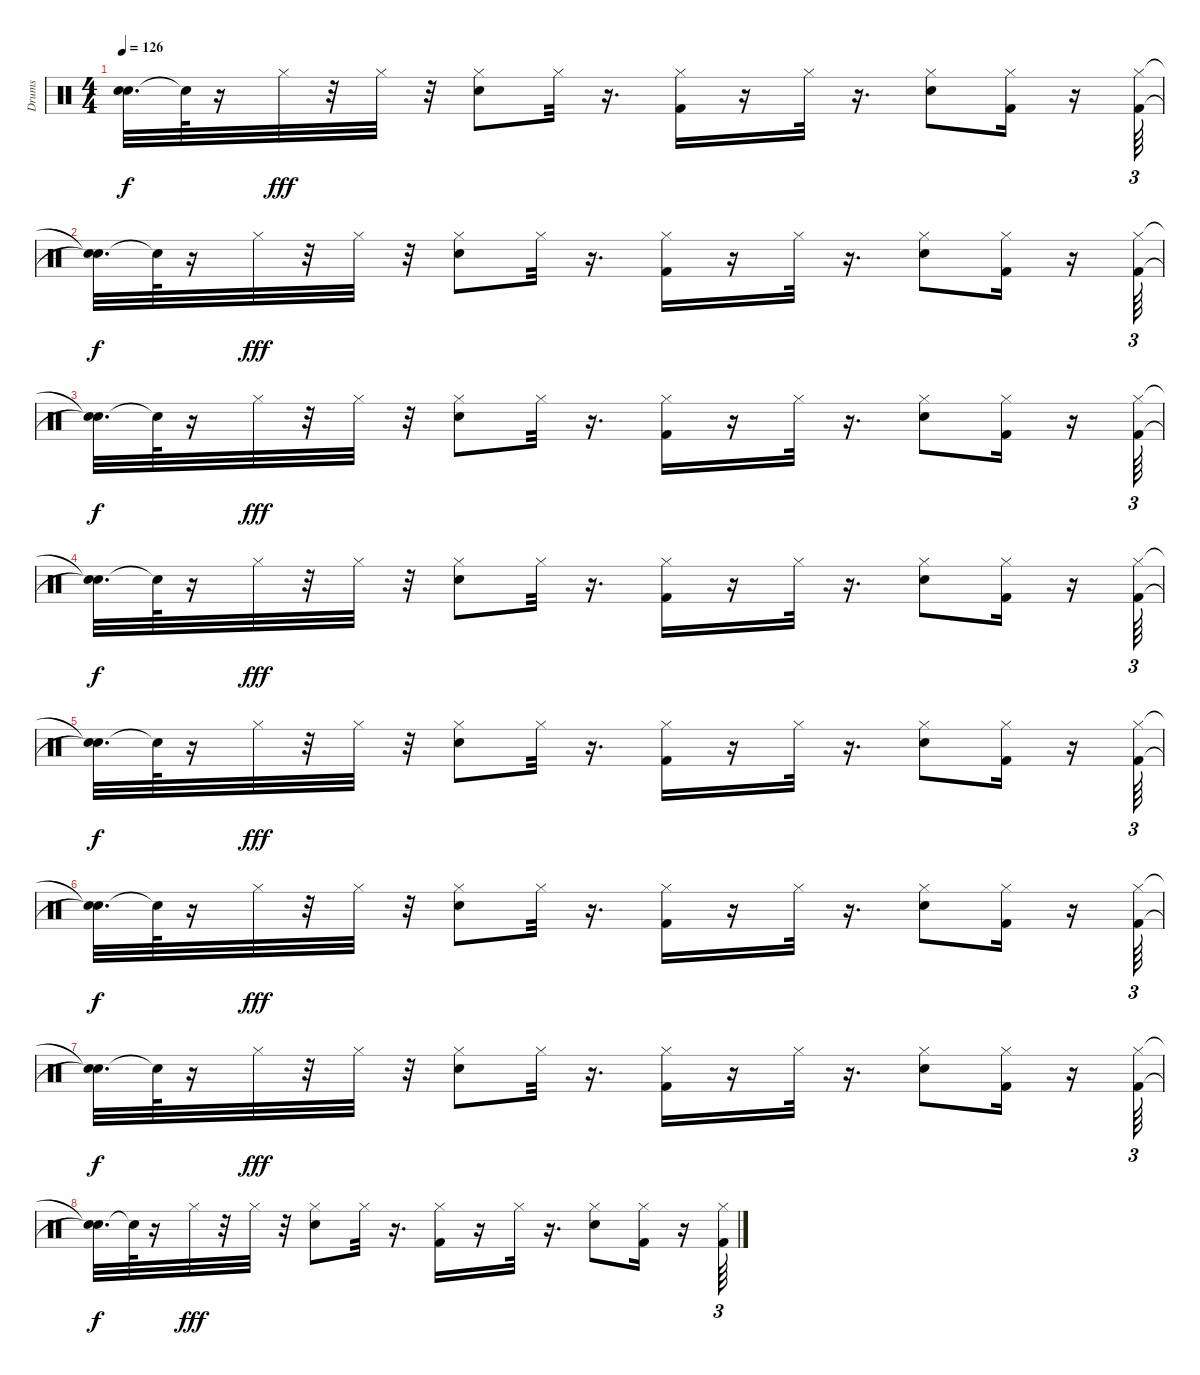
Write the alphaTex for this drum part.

\track ("Drums" "Drums") {instrument percussion}
\staff {score}
\articulation defaults
\ts (4 4)
\tempo 126
\clef neutral
\ks c
("Snare (hit)"{t} "Snare (hit)"{t}).32{d dy f} "Snare (hit)"{t}.64 r.16 "Hi-Hat (closed)".32{dy fff} r.32 "Hi-Hat (closed)".32 r.32 ("Snare (hit) 2" "Hi-Hat (closed)").8 "Hi-Hat (closed)".32 r.16{d} ("Hi-Hat (closed)" "Kick (hit) 2").16 r.16 "Hi-Hat (closed)".32 r.16{d} ("Snare (hit) 2" "Hi-Hat (closed)").8 ("Hi-Hat (closed)" "Kick (hit) 2").16 r.16 ("Hi-Hat (closed)" "Kick (hit) 2").64{tu (3 2)} |
("Snare (hit)"{t} "Snare (hit)"{t}).32{d dy f} "Snare (hit)"{t}.64 r.16 "Hi-Hat (closed)".32{dy fff} r.32 "Hi-Hat (closed)".32 r.32 ("Snare (hit) 2" "Hi-Hat (closed)").8 "Hi-Hat (closed)".32 r.16{d} ("Kick (hit) 2" "Hi-Hat (closed)").16 r.16 "Hi-Hat (closed)".32 r.16{d} ("Snare (hit) 2" "Hi-Hat (closed)").8 ("Hi-Hat (closed)" "Kick (hit) 2").16 r.16 ("Hi-Hat (closed)" "Kick (hit) 2").64{tu (3 2)} |
("Snare (hit)"{t} "Snare (hit)"{t}).32{d dy f} "Snare (hit)"{t}.64 r.16 "Hi-Hat (closed)".32{dy fff} r.32 "Hi-Hat (closed)".32 r.32 ("Snare (hit) 2" "Hi-Hat (closed)").8 "Hi-Hat (closed)".32 r.16{d} ("Hi-Hat (closed)" "Kick (hit) 2").16 r.16 "Hi-Hat (closed)".32 r.16{d} ("Snare (hit) 2" "Hi-Hat (closed)").8 ("Hi-Hat (closed)" "Kick (hit) 2").16 r.16 ("Kick (hit) 2" "Hi-Hat (closed)").64{tu (3 2)} |
("Snare (hit)"{t} "Snare (hit)"{t}).32{d dy f} "Snare (hit)"{t}.64 r.16 "Hi-Hat (closed)".32{dy fff} r.32 "Hi-Hat (closed)".32 r.32 ("Hi-Hat (closed)" "Snare (hit) 2").8 "Hi-Hat (closed)".32 r.16{d} ("Hi-Hat (closed)" "Kick (hit) 2").16 r.16 "Hi-Hat (closed)".32 r.16{d} ("Snare (hit) 2" "Hi-Hat (closed)").8 ("Hi-Hat (closed)" "Kick (hit) 2").16 r.16 ("Kick (hit) 2" "Hi-Hat (closed)").64{tu (3 2)} |
("Snare (hit)"{t} "Snare (hit)"{t}).32{d dy f} "Snare (hit)"{t}.64 r.16 "Hi-Hat (closed)".32{dy fff} r.32 "Hi-Hat (closed)".32 r.32 ("Hi-Hat (closed)" "Snare (hit) 2").8 "Hi-Hat (closed)".32 r.16{d} ("Hi-Hat (closed)" "Kick (hit) 2").16 r.16 "Hi-Hat (closed)".32 r.16{d} ("Snare (hit) 2" "Hi-Hat (closed)").8 ("Kick (hit) 2" "Hi-Hat (closed)").16 r.16 ("Kick (hit) 2" "Hi-Hat (closed)").64{tu (3 2)} |
("Snare (hit)"{t} "Snare (hit)"{t}).32{d dy f} "Snare (hit)"{t}.64 r.16 "Hi-Hat (closed)".32{dy fff} r.32 "Hi-Hat (closed)".32 r.32 ("Snare (hit) 2" "Hi-Hat (closed)").8 "Hi-Hat (closed)".32 r.16{d} ("Hi-Hat (closed)" "Kick (hit) 2").16 r.16 "Hi-Hat (closed)".32 r.16{d} ("Snare (hit) 2" "Hi-Hat (closed)").8 ("Hi-Hat (closed)" "Kick (hit) 2").16 r.16 ("Hi-Hat (closed)" "Kick (hit) 2").64{tu (3 2)} |
("Snare (hit)"{t} "Snare (hit)"{t}).32{d dy f} "Snare (hit)"{t}.64 r.16 "Hi-Hat (closed)".32{dy fff} r.32 "Hi-Hat (closed)".32 r.32 ("Hi-Hat (closed)" "Snare (hit) 2").8 "Hi-Hat (closed)".32 r.16{d} ("Hi-Hat (closed)" "Kick (hit) 2").16 r.16 "Hi-Hat (closed)".32 r.16{d} ("Hi-Hat (closed)" "Snare (hit) 2").8 ("Kick (hit) 2" "Hi-Hat (closed)").16 r.16 ("Kick (hit) 2" "Hi-Hat (closed)").64{tu (3 2)} |
("Snare (hit)"{t} "Snare (hit)"{t}).32{d dy f} "Snare (hit)"{t}.64 r.16 "Hi-Hat (closed)".32{dy fff} r.32 "Hi-Hat (closed)".32 r.32 ("Hi-Hat (closed)" "Snare (hit) 2").8 "Hi-Hat (closed)".32 r.16{d} ("Hi-Hat (closed)" "Kick (hit) 2").16 r.16 "Hi-Hat (closed)".32 r.16{d} ("Hi-Hat (closed)" "Snare (hit) 2").8 ("Hi-Hat (closed)" "Kick (hit) 2").16 r.16 ("Hi-Hat (closed)" "Kick (hit) 2").64{tu (3 2)}
